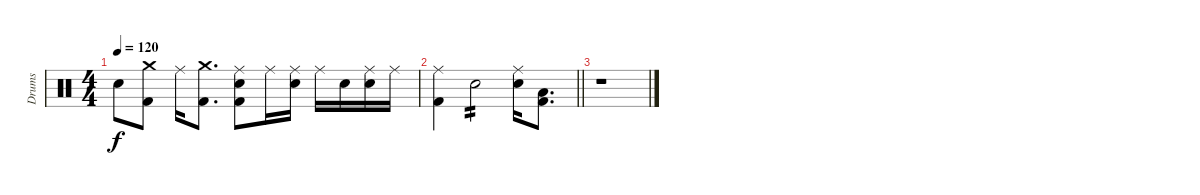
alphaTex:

\track ("Drums" "Drums") {instrument percussion}
\staff {score}
\articulation defaults
\ts (4 4)
\tempo 120
\clef neutral
\ks c "Snare (hit) 2".8{dy f}
("Crash medium (hit)" "Kick (hit) 2").8 "Ride (middle)".16 ("Crash medium (hit)" "Kick (hit) 2").8{d} ("Ride (middle)" "Snare (hit) 2" "Kick (hit) 2").8 "Ride (middle)".16 ("Ride (middle)" "Snare (hit) 2").16 "Ride (middle)".16 "Snare (hit) 2".16 ("Ride (middle)" "Snare (hit) 2").16 "Ride (middle)".16 |
\barLineRight lightlight
("Ride (middle)" "Kick (hit) 2").4 "Snare (hit) 2".2{tp 2} ("Ride (middle)" "Snare (hit) 2").16 ("Low Tom (hit)" "Kick (hit) 2").8{d} |
r.1
